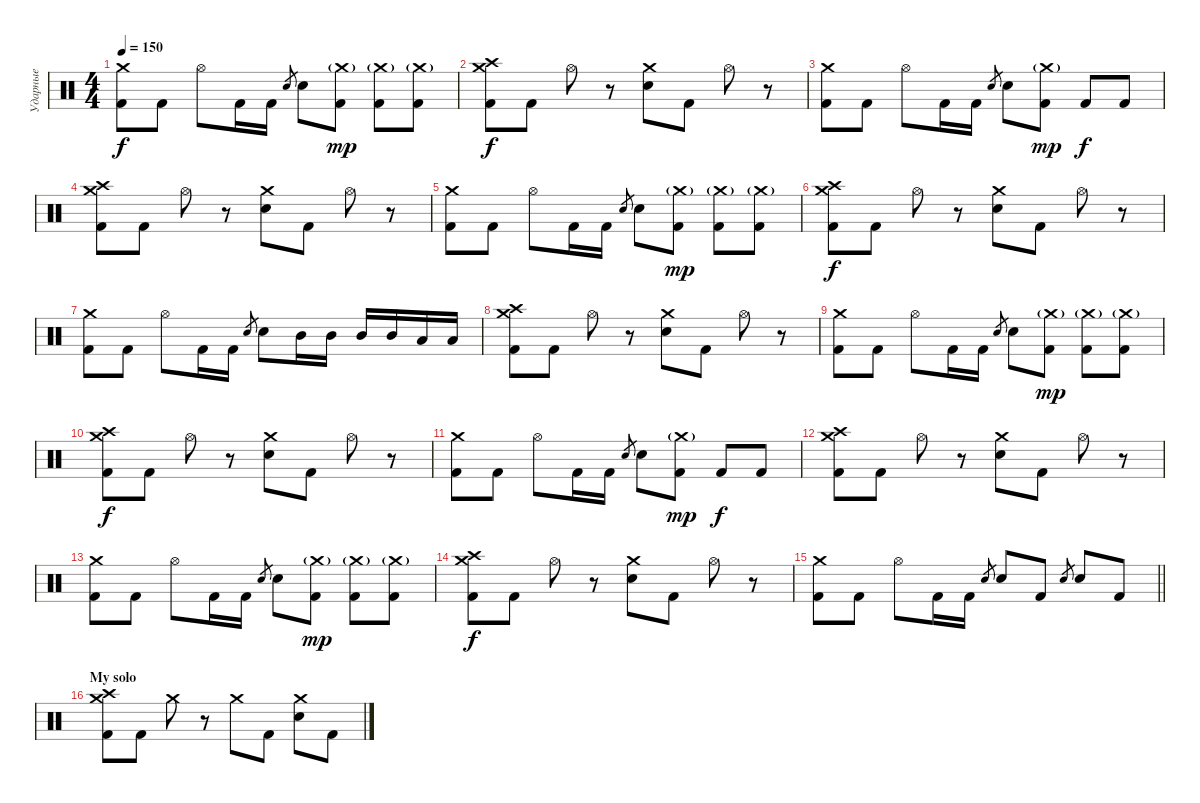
\track ("Ударные" "Ударные") {instrument percussion}
\staff {score}
\articulation defaults
\ts (4 4)
\tempo 150
\clef neutral
\ks c
("Crash medium (hit)" "Kick (hit) 2").8{dy f} "Kick (hit) 2".8 "Hi-Hat (open)".8 "Kick (hit) 2".16 "Kick (hit) 2".16 "Electric Snare (hit)".8{gr} "Electric Snare (hit)".8 ("Crash medium (hit)"{g} "Kick (hit) 2").8{dy mp} ("Crash medium (hit)"{g} "Kick (hit) 2").8 ("Crash medium (hit)"{g} "Kick (hit) 2").8 |
("Crash high (hit)" "Crash medium (hit)" "Kick (hit) 2").8{dy f} "Kick (hit) 2".8 "Hi-Hat (open)".8 r.8 ("Crash medium (hit)" "Electric Snare (hit)").8 "Kick (hit) 2".8 "Hi-Hat (open)".8 r.8 |
("Crash medium (hit)" "Kick (hit) 2").8 "Kick (hit) 2".8 "Hi-Hat (open)".8 "Kick (hit) 2".16 "Kick (hit) 2".16 "Electric Snare (hit)".8{gr} "Electric Snare (hit)".8 ("Crash medium (hit)"{g} "Kick (hit) 2").8{dy mp} "Kick (hit) 2".8{dy f} "Kick (hit) 2".8 |
("Crash high (hit)" "Crash medium (hit)" "Kick (hit) 2").8 "Kick (hit) 2".8 "Hi-Hat (open)".8 r.8 ("Crash medium (hit)" "Electric Snare (hit)").8 "Kick (hit) 2".8 "Hi-Hat (open)".8 r.8 |
("Crash medium (hit)" "Kick (hit) 2").8 "Kick (hit) 2".8 "Hi-Hat (open)".8 "Kick (hit) 2".16 "Kick (hit) 2".16 "Electric Snare (hit)".8{gr} "Electric Snare (hit)".8 ("Crash medium (hit)"{g} "Kick (hit) 2").8{dy mp} ("Crash medium (hit)"{g} "Kick (hit) 2").8 ("Crash medium (hit)"{g} "Kick (hit) 2").8 |
("Crash high (hit)" "Crash medium (hit)" "Kick (hit) 2").8{dy f} "Kick (hit) 2".8 "Hi-Hat (open)".8 r.8 ("Crash medium (hit)" "Electric Snare (hit)").8 "Kick (hit) 2".8 "Hi-Hat (open)".8 r.8 |
("Crash medium (hit)" "Kick (hit) 2").8 "Kick (hit) 2".8 "Hi-Hat (open)".8 "Kick (hit) 2".16 "Kick (hit) 2".16 "Electric Snare (hit)".8{gr} "Electric Snare (hit)".8 "Mid Tom (hit)".16 "Mid Tom (hit)".16 "Mid Tom (hit)".16 "Mid Tom (hit)".16 "Low Tom (hit)".16 "Low Tom (hit)".16 |
("Crash high (hit)" "Crash medium (hit)" "Kick (hit) 2").8 "Kick (hit) 2".8 "Hi-Hat (open)".8 r.8 ("Crash medium (hit)" "Electric Snare (hit)").8 "Kick (hit) 2".8 "Hi-Hat (open)".8 r.8 |
("Crash medium (hit)" "Kick (hit) 2").8 "Kick (hit) 2".8 "Hi-Hat (open)".8 "Kick (hit) 2".16 "Kick (hit) 2".16 "Electric Snare (hit)".8{gr} "Electric Snare (hit)".8 ("Crash medium (hit)"{g} "Kick (hit) 2").8{dy mp} ("Crash medium (hit)"{g} "Kick (hit) 2").8 ("Crash medium (hit)"{g} "Kick (hit) 2").8 |
("Crash high (hit)" "Crash medium (hit)" "Kick (hit) 2").8{dy f} "Kick (hit) 2".8 "Hi-Hat (open)".8 r.8 ("Crash medium (hit)" "Electric Snare (hit)").8 "Kick (hit) 2".8 "Hi-Hat (open)".8 r.8 |
("Crash medium (hit)" "Kick (hit) 2").8 "Kick (hit) 2".8 "Hi-Hat (open)".8 "Kick (hit) 2".16 "Kick (hit) 2".16 "Electric Snare (hit)".8{gr} "Electric Snare (hit)".8 ("Crash medium (hit)"{g} "Kick (hit) 2").8{dy mp} "Kick (hit) 2".8{dy f} "Kick (hit) 2".8 |
("Crash high (hit)" "Crash medium (hit)" "Kick (hit) 2").8 "Kick (hit) 2".8 "Hi-Hat (open)".8 r.8 ("Crash medium (hit)" "Electric Snare (hit)").8 "Kick (hit) 2".8 "Hi-Hat (open)".8 r.8 |
("Crash medium (hit)" "Kick (hit) 2").8 "Kick (hit) 2".8 "Hi-Hat (open)".8 "Kick (hit) 2".16 "Kick (hit) 2".16 "Electric Snare (hit)".8{gr} "Electric Snare (hit)".8 ("Crash medium (hit)"{g} "Kick (hit) 2").8{dy mp} ("Crash medium (hit)"{g} "Kick (hit) 2").8 ("Crash medium (hit)"{g} "Kick (hit) 2").8 |
("Crash high (hit)" "Crash medium (hit)" "Kick (hit) 2").8{dy f} "Kick (hit) 2".8 "Hi-Hat (open)".8 r.8 ("Crash medium (hit)" "Electric Snare (hit)").8 "Kick (hit) 2".8 "Hi-Hat (open)".8 r.8 |
\barLineRight lightlight
("Crash medium (hit)" "Kick (hit) 2").8 "Kick (hit) 2".8 "Hi-Hat (open)".8 "Kick (hit) 2".16 "Kick (hit) 2".16 "Electric Snare (hit)".8{gr} "Electric Snare (hit)".8 "Kick (hit) 2".8 "Electric Snare (hit)".8{gr} "Electric Snare (hit)".8 "Kick (hit) 2".8 |
\section ("" "My solo")
("Crash high (hit)" "Crash medium (hit)" "Kick (hit) 2").8 "Kick (hit) 2".8 "Crash medium (hit)".8 r.8 "Crash medium (hit)".8 "Kick (hit) 2".8 ("Crash medium (hit)" "Electric Snare (hit)").8 "Kick (hit) 2".8
